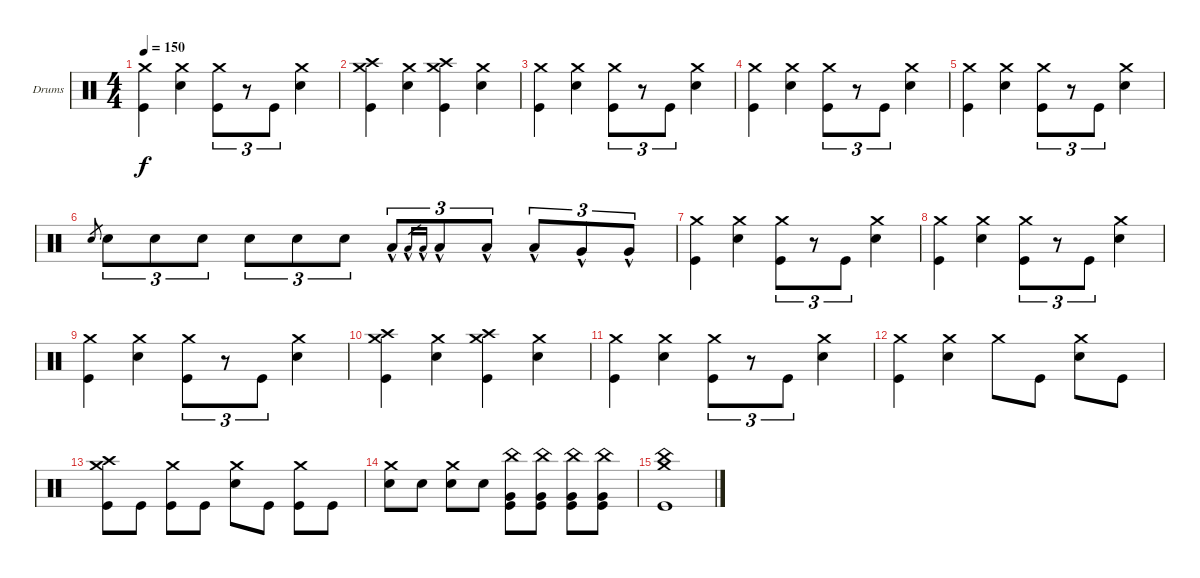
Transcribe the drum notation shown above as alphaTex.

\defaultSystemsLayout 4
\bracketExtendMode groupsimilarinstruments
\firstSystemTrackNameOrientation horizontal
\otherSystemsTrackNameOrientation horizontal
\track ("Drumkit" "Drums") {instrument percussion}
\staff {score}
\articulation defaults
\ts (4 4)
\tempo 150
\clef neutral
\ks c
("Kick (hit)" "Crash medium (hit)").4{dy f} ("Snare (hit) 2" "Crash medium (hit)").4 ("Kick (hit)" "Crash medium (hit)").8{tu (3 2)} r.8{tu (3 2)} "Kick (hit)".8{tu (3 2)} ("Snare (hit) 2" "Crash medium (hit)").4 |
("Kick (hit)" "Crash medium (hit)" "Crash high (hit)").4 ("Snare (hit) 2" "Crash medium (hit)").4 ("Kick (hit)" "Crash medium (hit)" "Crash high (hit)").4 ("Crash medium (hit)" "Snare (hit) 2").4 |
("Kick (hit)" "Crash medium (hit)").4 ("Snare (hit) 2" "Crash medium (hit)").4 ("Kick (hit)" "Crash medium (hit)").8{tu (3 2)} r.8{tu (3 2)} "Kick (hit)".8{tu (3 2)} ("Snare (hit) 2" "Crash medium (hit)").4 |
("Kick (hit)" "Crash medium (hit)").4 ("Snare (hit) 2" "Crash medium (hit)").4 ("Kick (hit)" "Crash medium (hit)").8{tu (3 2)} r.8{tu (3 2)} "Kick (hit)".8{tu (3 2)} ("Snare (hit) 2" "Crash medium (hit)").4 |
("Kick (hit)" "Crash medium (hit)").4 ("Snare (hit) 2" "Crash medium (hit)").4 ("Kick (hit)" "Crash medium (hit)").8{tu (3 2)} r.8{tu (3 2)} "Kick (hit)".8{tu (3 2)} ("Snare (hit) 2" "Crash medium (hit)").4 |
"Snare (hit) 2".8{gr} "Snare (hit) 2".8{tu (3 2)} "Snare (hit) 2".8{tu (3 2)} "Snare (hit) 2".8{tu (3 2)} "Snare (hit) 2".8{tu (3 2)} "Snare (hit) 2".8{tu (3 2)} "Snare (hit) 2".8{tu (3 2)} "Low Tom (hit)"{hac}.8{tu (3 2)} "Low Tom (hit)"{hac}.16{tu (3 2) gr} "Low Tom (hit)"{hac}.16{tu (3 2) gr} "Low Tom (hit)"{hac}.8{tu (3 2)} "Low Tom (hit)"{hac}.8{tu (3 2)} "Low Tom (hit)"{hac}.8{tu (3 2)} "Very Low Tom (hit)"{hac}.8{tu (3 2)} "Very Low Tom (hit)"{hac}.8{tu (3 2)} |
("Kick (hit)" "Crash medium (hit)").4 ("Snare (hit) 2" "Crash medium (hit)").4 ("Kick (hit)" "Crash medium (hit)").8{tu (3 2)} r.8{tu (3 2)} "Kick (hit)".8{tu (3 2)} ("Snare (hit) 2" "Crash medium (hit)").4 |
("Kick (hit)" "Crash medium (hit)").4 ("Snare (hit) 2" "Crash medium (hit)").4 ("Kick (hit)" "Crash medium (hit)").8{tu (3 2)} r.8{tu (3 2)} "Kick (hit)".8{tu (3 2)} ("Snare (hit) 2" "Crash medium (hit)").4 |
("Kick (hit)" "Crash medium (hit)").4 ("Snare (hit) 2" "Crash medium (hit)").4 ("Kick (hit)" "Crash medium (hit)").8{tu (3 2)} r.8{tu (3 2)} "Kick (hit)".8{tu (3 2)} ("Snare (hit) 2" "Crash medium (hit)").4 |
("Kick (hit)" "Crash medium (hit)" "Crash high (hit)").4 ("Snare (hit) 2" "Crash medium (hit)").4 ("Kick (hit)" "Crash medium (hit)" "Crash high (hit)").4 ("Crash medium (hit)" "Snare (hit) 2").4 |
("Kick (hit)" "Crash medium (hit)").4 ("Snare (hit) 2" "Crash medium (hit)").4 ("Kick (hit)" "Crash medium (hit)").8{tu (3 2)} r.8{tu (3 2)} "Kick (hit)".8{tu (3 2)} ("Snare (hit) 2" "Crash medium (hit)").4 |
("Kick (hit)" "Crash medium (hit)").4 ("Snare (hit) 2" "Crash medium (hit)").4 "Crash medium (hit)".8 "Kick (hit)".8 ("Snare (hit) 2" "Crash medium (hit)").8 "Kick (hit)".8 |
("Kick (hit)" "Crash high (hit)" "Crash medium (hit)").8 "Kick (hit)".8 ("Kick (hit)" "Crash medium (hit)").8 "Kick (hit)".8 ("Snare (hit) 2" "Crash medium (hit)").8 "Kick (hit)".8 ("Kick (hit)" "Crash medium (hit)").8 "Kick (hit)".8 |
("Snare (hit) 2" "Crash medium (hit)").8 "Snare (hit) 2".8 ("Snare (hit) 2" "Crash medium (hit)").8 "Snare (hit) 2".8 ("Kick (hit)" "Very Low Tom (hit)" "China (hit)").8 ("Kick (hit)" "Very Low Tom (hit)" "China (hit)").8 ("Kick (hit)" "Very Low Tom (hit)" "China (hit)").8 ("Kick (hit)" "Very Low Tom (hit)" "China (hit)").8 |
("Kick (hit)" "China (hit)" "Crash medium (hit)").1
